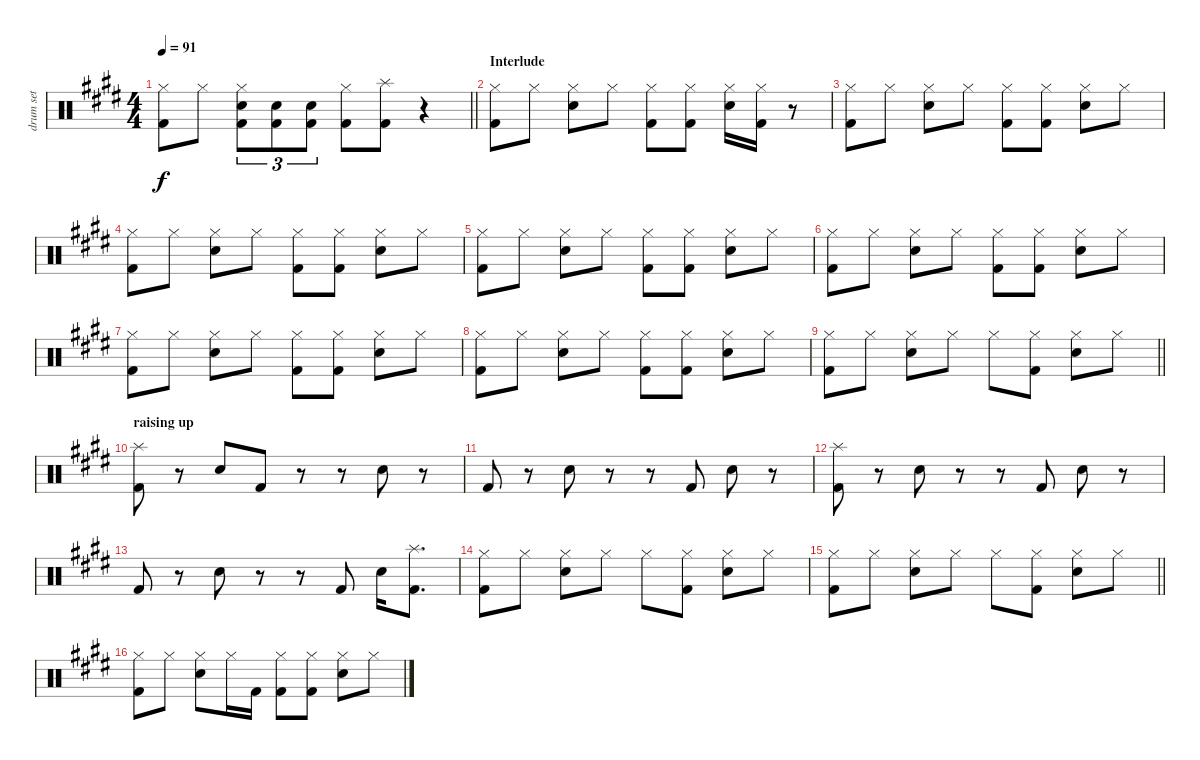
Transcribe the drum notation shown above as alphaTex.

\track ("drum set" "drum set") {instrument percussion}
\staff {score}
\articulation defaults
\ts (4 4)
\tempo 91
\clef neutral
\barLineRight lightlight
\ks e
("Hi-Hat (closed)" "Kick (hit) 2").8{dy f} "Hi-Hat (closed)".8 ("Hi-Hat (closed)" "Hand Clap (hit)" "Kick (hit) 2").8{tu (3 2)} ("Hand Clap (hit)" "Kick (hit) 2").8{tu (3 2)} ("Hand Clap (hit)" "Kick (hit) 2").8{tu (3 2)} ("Hi-Hat (closed)" "Kick (hit) 2").8 ("Splash (hit)" "Kick (hit) 2").8 r.4 |
\section ("" "Interlude")
("Hi-Hat (closed)" "Kick (hit) 2").8 "Hi-Hat (closed)".8 ("Hi-Hat (closed)" "Hand Clap (hit)").8 "Hi-Hat (closed)".8 ("Hi-Hat (closed)" "Kick (hit) 2").8 ("Hi-Hat (closed)" "Kick (hit) 2").8 ("Hi-Hat (closed)" "Hand Clap (hit)").16 ("Hi-Hat (closed)" "Kick (hit) 2").16 r.8 |
\ks c#minor
("Hi-Hat (closed)" "Kick (hit) 2").8 "Hi-Hat (closed)".8 ("Hi-Hat (closed)" "Hand Clap (hit)").8 "Hi-Hat (closed)".8 ("Hi-Hat (closed)" "Kick (hit) 2").8 ("Hi-Hat (closed)" "Kick (hit) 2").8 ("Hi-Hat (closed)" "Hand Clap (hit)").8 "Hi-Hat (closed)".8 |
\ks e
("Hi-Hat (closed)" "Kick (hit) 2").8 "Hi-Hat (closed)".8 ("Hi-Hat (closed)" "Hand Clap (hit)").8 "Hi-Hat (closed)".8 ("Hi-Hat (closed)" "Kick (hit) 2").8 ("Hi-Hat (closed)" "Kick (hit) 2").8 ("Hi-Hat (closed)" "Hand Clap (hit)").8 "Hi-Hat (closed)".8 |
\ks c#minor
("Hi-Hat (closed)" "Kick (hit) 2").8 "Hi-Hat (closed)".8 ("Hi-Hat (closed)" "Hand Clap (hit)").8 "Hi-Hat (closed)".8 ("Hi-Hat (closed)" "Kick (hit) 2").8 ("Hi-Hat (closed)" "Kick (hit) 2").8 ("Hi-Hat (closed)" "Hand Clap (hit)").8 "Hi-Hat (closed)".8 |
\ks e
("Hi-Hat (closed)" "Kick (hit) 2").8 "Hi-Hat (closed)".8 ("Hi-Hat (closed)" "Hand Clap (hit)").8 "Hi-Hat (closed)".8 ("Hi-Hat (closed)" "Kick (hit) 2").8 ("Hi-Hat (closed)" "Kick (hit) 2").8 ("Hi-Hat (closed)" "Hand Clap (hit)").8 "Hi-Hat (closed)".8 |
\ks c#minor
("Hi-Hat (closed)" "Kick (hit) 2").8 "Hi-Hat (closed)".8 ("Hi-Hat (closed)" "Hand Clap (hit)").8 "Hi-Hat (closed)".8 ("Hi-Hat (closed)" "Kick (hit) 2").8 ("Hi-Hat (closed)" "Kick (hit) 2").8 ("Hi-Hat (closed)" "Hand Clap (hit)").8 "Hi-Hat (closed)".8 |
\ks e
("Hi-Hat (closed)" "Kick (hit) 2").8 "Hi-Hat (closed)".8 ("Hi-Hat (closed)" "Hand Clap (hit)").8 "Hi-Hat (closed)".8 ("Hi-Hat (closed)" "Kick (hit) 2").8 ("Hi-Hat (closed)" "Kick (hit) 2").8 ("Hi-Hat (closed)" "Hand Clap (hit)").8 "Hi-Hat (closed)".8 |
\barLineRight lightlight
\ks c#minor
("Hi-Hat (closed)" "Kick (hit) 2").8 "Hi-Hat (closed)".8 ("Hi-Hat (closed)" "Hand Clap (hit)").8 "Hi-Hat (closed)".8 "Hi-Hat (closed)".8 ("Hi-Hat (closed)" "Kick (hit) 2").8 ("Hi-Hat (closed)" "Hand Clap (hit)").8 "Hi-Hat (closed)".8 |
\section ("" "raising up")
\ks e
("Splash (hit)" "Kick (hit) 2").8 r.8 "Hand Clap (hit)".8 "Kick (hit) 2".8 r.8 r.8 "Hand Clap (hit)".8 r.8 |
\ks c#minor "Kick (hit) 2".8
r.8 "Hand Clap (hit)".8 r.8 r.8 "Kick (hit) 2".8 "Hand Clap (hit)".8 r.8 |
("Splash (hit)" "Kick (hit) 2").8 r.8 "Hand Clap (hit)".8 r.8 r.8 "Kick (hit) 2".8 "Hand Clap (hit)".8 r.8 |
"Kick (hit) 2".8 r.8 "Hand Clap (hit)".8 r.8 r.8 "Kick (hit) 2".8 "Hand Clap (hit)".16 ("Splash (hit)" "Kick (hit) 2").8{d} |
("Hi-Hat (closed)" "Kick (hit) 2").8 "Hi-Hat (closed)".8 ("Hi-Hat (closed)" "Hand Clap (hit)").8 "Hi-Hat (closed)".8 "Hi-Hat (closed)".8 ("Hi-Hat (closed)" "Kick (hit) 2").8 ("Hi-Hat (closed)" "Hand Clap (hit)").8 "Hi-Hat (closed)".8 |
\barLineRight lightlight
\ks e
("Hi-Hat (closed)" "Kick (hit) 2").8 "Hi-Hat (closed)".8 ("Hi-Hat (closed)" "Hand Clap (hit)").8 "Hi-Hat (closed)".8 "Hi-Hat (closed)".8 ("Hi-Hat (closed)" "Kick (hit) 2").8 ("Hi-Hat (closed)" "Hand Clap (hit)").8 "Hi-Hat (closed)".8 |
\ks c#minor
("Hi-Hat (closed)" "Kick (hit) 2").8 "Hi-Hat (closed)".8 ("Hi-Hat (closed)" "Hand Clap (hit)").8 "Hi-Hat (closed)".16 "Kick (hit) 2".16 ("Hi-Hat (closed)" "Kick (hit) 2").8 ("Hi-Hat (closed)" "Kick (hit) 2").8 ("Hi-Hat (closed)" "Hand Clap (hit)").8 "Hi-Hat (closed)".8
